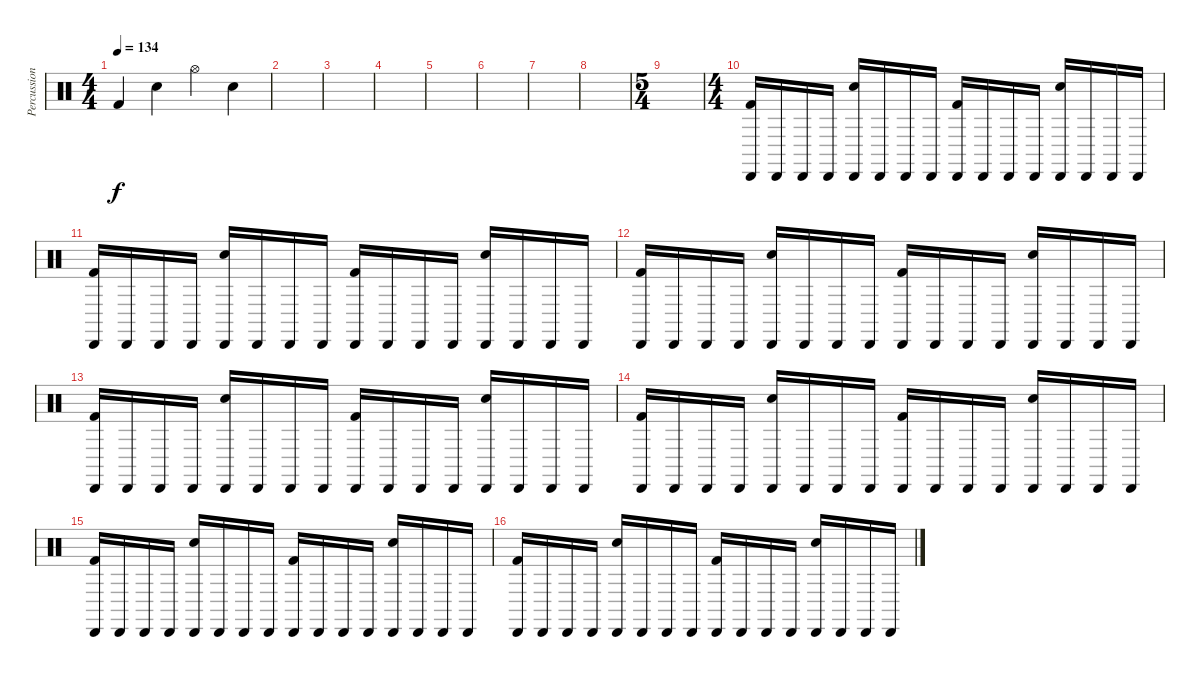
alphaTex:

\track ("Percussion" "Percussion") {instrument percussion}
\staff {score}
\articulation defaults
\ts (4 4)
\tempo 134
\clef neutral
\ks c "Kick (hit) 2".4{dy f} "Snare (hit) 2".4 "Hi-Hat (open)".4 "Snare (hit) 2".4
|
|
|
|
|
|
|
|
\ts (5 4)
|
\ts (4 4)
("Cabasa (hit)" "Kick (hit) 2").16 "Cabasa (hit)".16 "Cabasa (hit)".16 "Cabasa (hit)".16 ("Cabasa (hit)" "Snare (hit) 2").16 "Cabasa (hit)".16 "Cabasa (hit)".16 "Cabasa (hit)".16 ("Cabasa (hit)" "Kick (hit) 2").16 "Cabasa (hit)".16 "Cabasa (hit)".16 "Cabasa (hit)".16 ("Cabasa (hit)" "Snare (hit) 2").16 "Cabasa (hit)".16 "Cabasa (hit)".16 "Cabasa (hit)".16 |
("Cabasa (hit)" "Kick (hit) 2").16 "Cabasa (hit)".16 "Cabasa (hit)".16 "Cabasa (hit)".16 ("Cabasa (hit)" "Snare (hit) 2").16 "Cabasa (hit)".16 "Cabasa (hit)".16 "Cabasa (hit)".16 ("Cabasa (hit)" "Kick (hit) 2").16 "Cabasa (hit)".16 "Cabasa (hit)".16 "Cabasa (hit)".16 ("Cabasa (hit)" "Snare (hit) 2").16 "Cabasa (hit)".16 "Cabasa (hit)".16 "Cabasa (hit)".16 |
("Cabasa (hit)" "Kick (hit) 2").16 "Cabasa (hit)".16 "Cabasa (hit)".16 "Cabasa (hit)".16 ("Cabasa (hit)" "Snare (hit) 2").16 "Cabasa (hit)".16 "Cabasa (hit)".16 "Cabasa (hit)".16 ("Cabasa (hit)" "Kick (hit) 2").16 "Cabasa (hit)".16 "Cabasa (hit)".16 "Cabasa (hit)".16 ("Cabasa (hit)" "Snare (hit) 2").16 "Cabasa (hit)".16 "Cabasa (hit)".16 "Cabasa (hit)".16 |
("Cabasa (hit)" "Kick (hit) 2").16 "Cabasa (hit)".16 "Cabasa (hit)".16 "Cabasa (hit)".16 ("Cabasa (hit)" "Snare (hit) 2").16 "Cabasa (hit)".16 "Cabasa (hit)".16 "Cabasa (hit)".16 ("Cabasa (hit)" "Kick (hit) 2").16 "Cabasa (hit)".16 "Cabasa (hit)".16 "Cabasa (hit)".16 ("Cabasa (hit)" "Snare (hit) 2").16 "Cabasa (hit)".16 "Cabasa (hit)".16 "Cabasa (hit)".16 |
("Cabasa (hit)" "Kick (hit) 2").16 "Cabasa (hit)".16 "Cabasa (hit)".16 "Cabasa (hit)".16 ("Cabasa (hit)" "Snare (hit) 2").16 "Cabasa (hit)".16 "Cabasa (hit)".16 "Cabasa (hit)".16 ("Cabasa (hit)" "Kick (hit) 2").16 "Cabasa (hit)".16 "Cabasa (hit)".16 "Cabasa (hit)".16 ("Cabasa (hit)" "Snare (hit) 2").16 "Cabasa (hit)".16 "Cabasa (hit)".16 "Cabasa (hit)".16 |
("Cabasa (hit)" "Kick (hit) 2").16 "Cabasa (hit)".16 "Cabasa (hit)".16 "Cabasa (hit)".16 ("Cabasa (hit)" "Snare (hit) 2").16 "Cabasa (hit)".16 "Cabasa (hit)".16 "Cabasa (hit)".16 ("Cabasa (hit)" "Kick (hit) 2").16 "Cabasa (hit)".16 "Cabasa (hit)".16 "Cabasa (hit)".16 ("Cabasa (hit)" "Snare (hit) 2").16 "Cabasa (hit)".16 "Cabasa (hit)".16 "Cabasa (hit)".16 |
("Cabasa (hit)" "Kick (hit) 2").16 "Cabasa (hit)".16 "Cabasa (hit)".16 "Cabasa (hit)".16 ("Cabasa (hit)" "Snare (hit) 2").16 "Cabasa (hit)".16 "Cabasa (hit)".16 "Cabasa (hit)".16 ("Cabasa (hit)" "Kick (hit) 2").16 "Cabasa (hit)".16 "Cabasa (hit)".16 "Cabasa (hit)".16 ("Cabasa (hit)" "Snare (hit) 2").16 "Cabasa (hit)".16 "Cabasa (hit)".16 "Cabasa (hit)".16
